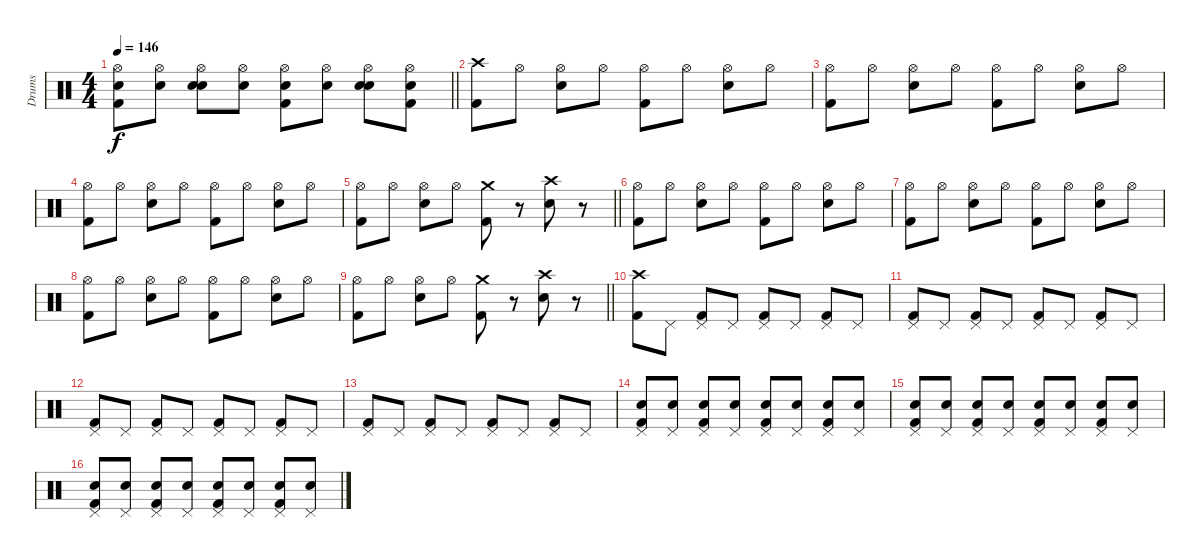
\track ("Drums" "Drums") {instrument percussion}
\staff {score}
\articulation defaults
\ts (4 4)
\tempo 146
\clef neutral
\barLineRight lightlight
\ks c
("Hi-Hat (open)" "Snare (hit) 2" "Kick (hit) 2").8{dy f} ("Hi-Hat (open)" "Snare (hit) 2").8 ("Hi-Hat (open)" "Snare (hit) 2" "Snare (hit) 2").8 ("Hi-Hat (open)" "Snare (hit) 2").8 ("Hi-Hat (open)" "Snare (hit) 2" "Kick (hit) 2").8 ("Hi-Hat (open)" "Snare (hit) 2").8 ("Hi-Hat (open)" "Snare (hit) 2" "Snare (hit) 2").8 ("Hi-Hat (open)" "Snare (hit) 2" "Kick (hit) 2").8 |
("Crash high (hit)" "Kick (hit) 2").8 "Hi-Hat (open)".8 ("Hi-Hat (open)" "Snare (hit) 2").8 "Hi-Hat (open)".8 ("Hi-Hat (open)" "Kick (hit) 2").8 "Hi-Hat (open)".8 ("Hi-Hat (open)" "Snare (hit) 2").8 "Hi-Hat (open)".8 |
("Hi-Hat (open)" "Kick (hit) 2").8 "Hi-Hat (open)".8 ("Hi-Hat (open)" "Snare (hit) 2").8 "Hi-Hat (open)".8 ("Hi-Hat (open)" "Kick (hit) 2").8 "Hi-Hat (open)".8 ("Hi-Hat (open)" "Snare (hit) 2").8 "Hi-Hat (open)".8 |
("Hi-Hat (open)" "Kick (hit) 2").8 "Hi-Hat (open)".8 ("Hi-Hat (open)" "Snare (hit) 2").8 "Hi-Hat (open)".8 ("Hi-Hat (open)" "Kick (hit) 2").8 "Hi-Hat (open)".8 ("Hi-Hat (open)" "Snare (hit) 2").8 "Hi-Hat (open)".8 |
\barLineRight lightlight
("Hi-Hat (open)" "Kick (hit) 2").8 "Hi-Hat (open)".8 ("Hi-Hat (open)" "Snare (hit) 2").8 "Hi-Hat (open)".8 ("Crash medium (hit)" "Kick (hit) 2").8 r.8 ("Crash high (hit)" "Snare (hit) 2").8 r.8 |
("Hi-Hat (open)" "Kick (hit) 2").8 "Hi-Hat (open)".8 ("Hi-Hat (open)" "Snare (hit) 2").8 "Hi-Hat (open)".8 ("Hi-Hat (open)" "Kick (hit) 2").8 "Hi-Hat (open)".8 ("Hi-Hat (open)" "Snare (hit) 2").8 "Hi-Hat (open)".8 |
("Hi-Hat (open)" "Kick (hit) 2").8 "Hi-Hat (open)".8 ("Hi-Hat (open)" "Snare (hit) 2").8 "Hi-Hat (open)".8 ("Hi-Hat (open)" "Kick (hit) 2").8 "Hi-Hat (open)".8 ("Hi-Hat (open)" "Snare (hit) 2").8 "Hi-Hat (open)".8 |
("Hi-Hat (open)" "Kick (hit) 2").8 "Hi-Hat (open)".8 ("Hi-Hat (open)" "Snare (hit) 2").8 "Hi-Hat (open)".8 ("Hi-Hat (open)" "Kick (hit) 2").8 "Hi-Hat (open)".8 ("Hi-Hat (open)" "Snare (hit) 2").8 "Hi-Hat (open)".8 |
\barLineRight lightlight
("Hi-Hat (open)" "Kick (hit) 2").8 "Hi-Hat (open)".8 ("Hi-Hat (open)" "Snare (hit) 2").8 "Hi-Hat (open)".8 ("Crash medium (hit)" "Kick (hit) 2").8 r.8 ("Crash high (hit)" "Snare (hit) 2").8 r.8 |
("Crash high (hit)" "Kick (hit) 2").8 "Pedal Hi-Hat (hit)".8 ("Pedal Hi-Hat (hit)" "Kick (hit) 2").8 "Pedal Hi-Hat (hit)".8 ("Pedal Hi-Hat (hit)" "Kick (hit) 2").8 "Pedal Hi-Hat (hit)".8 ("Pedal Hi-Hat (hit)" "Kick (hit) 2").8 "Pedal Hi-Hat (hit)".8 |
("Pedal Hi-Hat (hit)" "Kick (hit) 2").8 "Pedal Hi-Hat (hit)".8 ("Pedal Hi-Hat (hit)" "Kick (hit) 2").8 "Pedal Hi-Hat (hit)".8 ("Pedal Hi-Hat (hit)" "Kick (hit) 2").8 "Pedal Hi-Hat (hit)".8 ("Pedal Hi-Hat (hit)" "Kick (hit) 2").8 "Pedal Hi-Hat (hit)".8 |
("Pedal Hi-Hat (hit)" "Kick (hit) 2").8 "Pedal Hi-Hat (hit)".8 ("Pedal Hi-Hat (hit)" "Kick (hit) 2").8 "Pedal Hi-Hat (hit)".8 ("Pedal Hi-Hat (hit)" "Kick (hit) 2").8 "Pedal Hi-Hat (hit)".8 ("Pedal Hi-Hat (hit)" "Kick (hit) 2").8 "Pedal Hi-Hat (hit)".8 |
("Pedal Hi-Hat (hit)" "Kick (hit) 2").8 "Pedal Hi-Hat (hit)".8 ("Pedal Hi-Hat (hit)" "Kick (hit) 2").8 "Pedal Hi-Hat (hit)".8 ("Pedal Hi-Hat (hit)" "Kick (hit) 2").8 "Pedal Hi-Hat (hit)".8 ("Pedal Hi-Hat (hit)" "Kick (hit) 2").8 "Pedal Hi-Hat (hit)".8 |
("Pedal Hi-Hat (hit)" "Snare (hit) 2" "Kick (hit) 2").8 ("Pedal Hi-Hat (hit)" "Snare (hit) 2").8 ("Pedal Hi-Hat (hit)" "Snare (hit) 2" "Kick (hit) 2").8 ("Pedal Hi-Hat (hit)" "Snare (hit) 2").8 ("Pedal Hi-Hat (hit)" "Snare (hit) 2" "Kick (hit) 2").8 ("Pedal Hi-Hat (hit)" "Snare (hit) 2").8 ("Pedal Hi-Hat (hit)" "Snare (hit) 2" "Kick (hit) 2").8 ("Pedal Hi-Hat (hit)" "Snare (hit) 2").8 |
("Pedal Hi-Hat (hit)" "Snare (hit) 2" "Kick (hit) 2").8 ("Pedal Hi-Hat (hit)" "Snare (hit) 2").8 ("Pedal Hi-Hat (hit)" "Snare (hit) 2" "Kick (hit) 2").8 ("Pedal Hi-Hat (hit)" "Snare (hit) 2").8 ("Pedal Hi-Hat (hit)" "Snare (hit) 2" "Kick (hit) 2").8 ("Pedal Hi-Hat (hit)" "Snare (hit) 2").8 ("Pedal Hi-Hat (hit)" "Snare (hit) 2" "Kick (hit) 2").8 ("Pedal Hi-Hat (hit)" "Snare (hit) 2").8 |
("Pedal Hi-Hat (hit)" "Snare (hit) 2" "Kick (hit) 2").8 ("Pedal Hi-Hat (hit)" "Snare (hit) 2").8 ("Pedal Hi-Hat (hit)" "Snare (hit) 2" "Kick (hit) 2").8 ("Pedal Hi-Hat (hit)" "Snare (hit) 2").8 ("Pedal Hi-Hat (hit)" "Snare (hit) 2" "Kick (hit) 2").8 ("Pedal Hi-Hat (hit)" "Snare (hit) 2").8 ("Pedal Hi-Hat (hit)" "Snare (hit) 2" "Kick (hit) 2").8 ("Pedal Hi-Hat (hit)" "Snare (hit) 2").8
